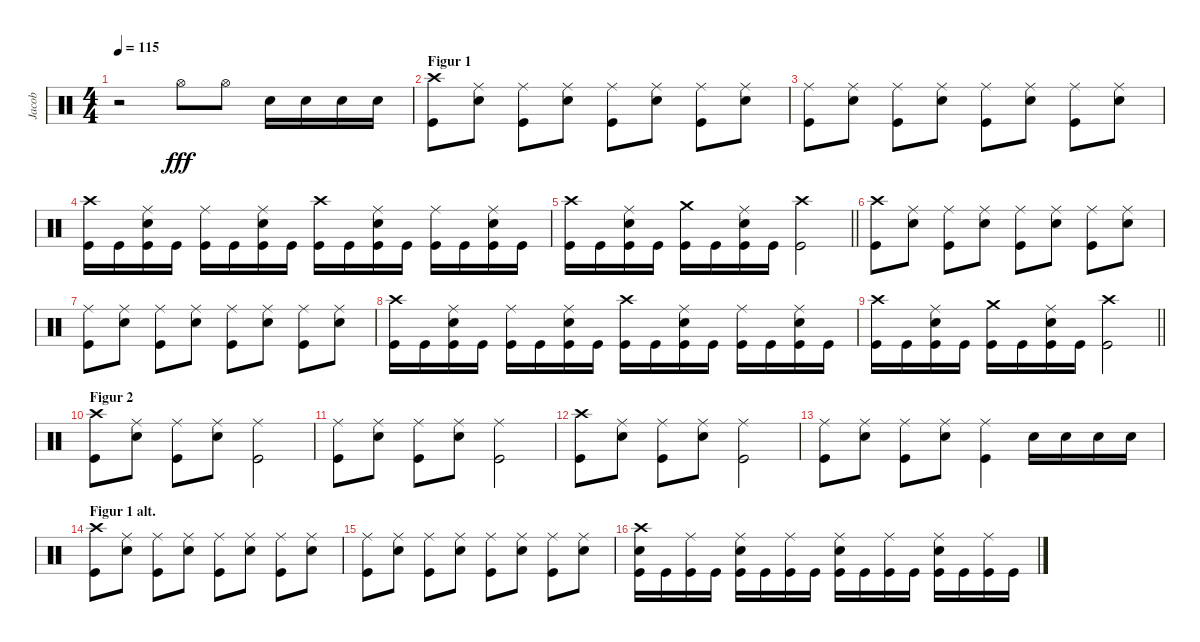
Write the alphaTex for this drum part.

\track ("Jacob" "Jacob") {instrument percussion}
\staff {score}
\articulation defaults
\ts (4 4)
\tempo 115
\clef neutral
\ks c
r.2{dy fff} "Hi-Hat (open)".8 "Hi-Hat (open)".8 "Electric Snare (hit)".16 "Electric Snare (hit)".16 "Electric Snare (hit)".16 "Electric Snare (hit)".16 |
\section ("" "Figur 1")
("Kick (hit)" "Crash high (hit)").8 ("Electric Snare (hit)" "Ride (middle)").8 ("Kick (hit)" "Ride (middle)").8 ("Electric Snare (hit)" "Ride (middle)").8 ("Kick (hit)" "Ride (middle)").8 ("Electric Snare (hit)" "Ride (middle)").8 ("Kick (hit)" "Ride (middle)").8 ("Electric Snare (hit)" "Ride (middle)").8 |
("Kick (hit)" "Ride (middle)").8 ("Electric Snare (hit)" "Ride (middle)").8 ("Kick (hit)" "Ride (middle)").8 ("Electric Snare (hit)" "Ride (middle)").8 ("Kick (hit)" "Ride (middle)").8 ("Electric Snare (hit)" "Ride (middle)").8 ("Kick (hit)" "Ride (middle)").8 ("Electric Snare (hit)" "Ride (middle)").8 |
("Kick (hit)" "Crash high (hit)").16 "Kick (hit)".16 ("Kick (hit)" "Electric Snare (hit)" "Ride (middle)").16 "Kick (hit)".16 ("Kick (hit)" "Ride (middle)").16 "Kick (hit)".16 ("Kick (hit)" "Electric Snare (hit)" "Ride (middle)").16 "Kick (hit)".16 ("Kick (hit)" "Crash high (hit)").16 "Kick (hit)".16 ("Kick (hit)" "Electric Snare (hit)" "Ride (middle)").16 "Kick (hit)".16 ("Kick (hit)" "Ride (middle)").16 "Kick (hit)".16 ("Kick (hit)" "Electric Snare (hit)" "Ride (middle)").16 "Kick (hit)".16 |
\barLineRight lightlight
("Kick (hit)" "Crash high (hit)").16 "Kick (hit)".16 ("Kick (hit)" "Electric Snare (hit)" "Ride (middle)").16 "Kick (hit)".16 ("Kick (hit)" "Crash medium (hit)").16 "Kick (hit)".16 ("Kick (hit)" "Electric Snare (hit)" "Ride (middle)").16 "Kick (hit)".16 ("Kick (hit)" "Crash high (hit)").2 |
("Kick (hit)" "Crash high (hit)").8 ("Electric Snare (hit)" "Ride (middle)").8 ("Kick (hit)" "Ride (middle)").8 ("Electric Snare (hit)" "Ride (middle)").8 ("Kick (hit)" "Ride (middle)").8 ("Electric Snare (hit)" "Ride (middle)").8 ("Kick (hit)" "Ride (middle)").8 ("Electric Snare (hit)" "Ride (middle)").8 |
("Kick (hit)" "Ride (middle)").8 ("Electric Snare (hit)" "Ride (middle)").8 ("Kick (hit)" "Ride (middle)").8 ("Electric Snare (hit)" "Ride (middle)").8 ("Kick (hit)" "Ride (middle)").8 ("Electric Snare (hit)" "Ride (middle)").8 ("Kick (hit)" "Ride (middle)").8 ("Electric Snare (hit)" "Ride (middle)").8 |
("Kick (hit)" "Crash high (hit)").16 "Kick (hit)".16 ("Kick (hit)" "Electric Snare (hit)" "Ride (middle)").16 "Kick (hit)".16 ("Kick (hit)" "Ride (middle)").16 "Kick (hit)".16 ("Kick (hit)" "Electric Snare (hit)" "Ride (middle)").16 "Kick (hit)".16 ("Kick (hit)" "Crash high (hit)").16 "Kick (hit)".16 ("Kick (hit)" "Electric Snare (hit)" "Ride (middle)").16 "Kick (hit)".16 ("Kick (hit)" "Ride (middle)").16 "Kick (hit)".16 ("Kick (hit)" "Electric Snare (hit)" "Ride (middle)").16 "Kick (hit)".16 |
\barLineRight lightlight
("Kick (hit)" "Crash high (hit)").16 "Kick (hit)".16 ("Kick (hit)" "Electric Snare (hit)" "Ride (middle)").16 "Kick (hit)".16 ("Kick (hit)" "Crash medium (hit)").16 "Kick (hit)".16 ("Kick (hit)" "Electric Snare (hit)" "Ride (middle)").16 "Kick (hit)".16 ("Kick (hit)" "Crash high (hit)").2 |
\section ("" "Figur 2")
("Kick (hit)" "Crash high (hit)").8 ("Electric Snare (hit)" "Ride (middle)").8 ("Kick (hit)" "Ride (middle)").8 ("Electric Snare (hit)" "Ride (middle)").8 ("Kick (hit)" "Ride (middle)").2 |
("Kick (hit)" "Ride (middle)").8 ("Electric Snare (hit)" "Ride (middle)").8 ("Kick (hit)" "Ride (middle)").8 ("Electric Snare (hit)" "Ride (middle)").8 ("Kick (hit)" "Ride (middle)").2 |
("Kick (hit)" "Crash high (hit)").8 ("Electric Snare (hit)" "Ride (middle)").8 ("Kick (hit)" "Ride (middle)").8 ("Electric Snare (hit)" "Ride (middle)").8 ("Kick (hit)" "Ride (middle)").2 |
("Kick (hit)" "Ride (middle)").8 ("Electric Snare (hit)" "Ride (middle)").8 ("Kick (hit)" "Ride (middle)").8 ("Electric Snare (hit)" "Ride (middle)").8 ("Kick (hit)" "Ride (middle)").4 "Electric Snare (hit)".16 "Electric Snare (hit)".16 "Electric Snare (hit)".16 "Electric Snare (hit)".16 |
\section ("" "Figur 1 alt.")
("Kick (hit)" "Crash high (hit)").8 ("Electric Snare (hit)" "Ride (middle)").8 ("Kick (hit)" "Ride (middle)").8 ("Electric Snare (hit)" "Ride (middle)").8 ("Kick (hit)" "Ride (middle)").8 ("Electric Snare (hit)" "Ride (middle)").8 ("Kick (hit)" "Ride (middle)").8 ("Electric Snare (hit)" "Ride (middle)").8 |
("Kick (hit)" "Ride (middle)").8 ("Electric Snare (hit)" "Ride (middle)").8 ("Kick (hit)" "Ride (middle)").8 ("Electric Snare (hit)" "Ride (middle)").8 ("Kick (hit)" "Ride (middle)").8 ("Electric Snare (hit)" "Ride (middle)").8 ("Kick (hit)" "Ride (middle)").8 ("Electric Snare (hit)" "Ride (middle)").8 |
("Kick (hit)" "Electric Snare (hit)" "Crash high (hit)").16 "Kick (hit)".16 ("Kick (hit)" "Ride (middle)").16 "Kick (hit)".16 ("Kick (hit)" "Electric Snare (hit)" "Ride (middle)").16 "Kick (hit)".16 ("Kick (hit)" "Ride (middle)").16 "Kick (hit)".16 ("Kick (hit)" "Electric Snare (hit)" "Ride (middle)").16 "Kick (hit)".16 ("Kick (hit)" "Ride (middle)").16 "Kick (hit)".16 ("Kick (hit)" "Electric Snare (hit)" "Ride (middle)").16 "Kick (hit)".16 ("Kick (hit)" "Ride (middle)").16 "Kick (hit)".16
